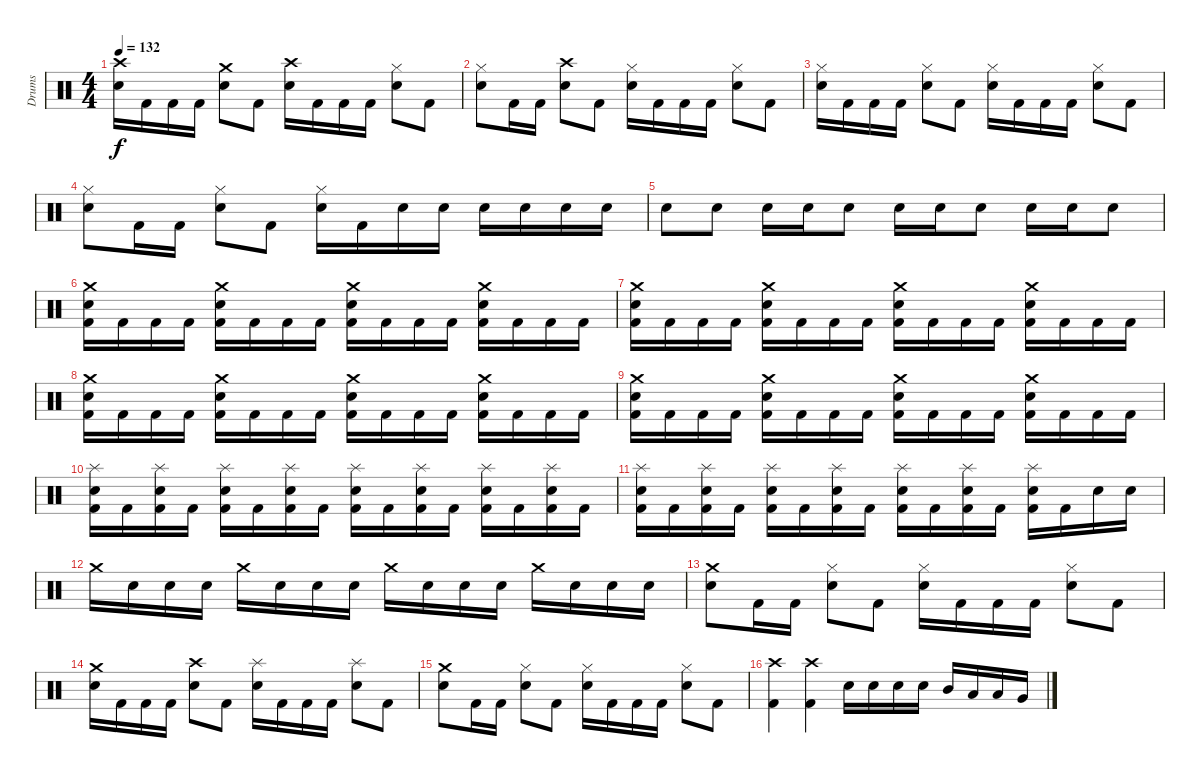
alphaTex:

\track ("Drums" "Drums") {instrument percussion}
\staff {score}
\articulation defaults
\ts (4 4)
\tempo 132
\clef neutral
\ks c
("Crash high (hit)" "Snare (hit) 2").16{dy f} "Kick (hit) 2".16 "Kick (hit) 2".16 "Kick (hit) 2".16 ("Crash medium (hit)" "Snare (hit) 2").8 "Kick (hit) 2".8 ("Crash high (hit)" "Snare (hit) 2").16 "Kick (hit) 2".16 "Kick (hit) 2".16 "Kick (hit) 2".16 ("Hi-Hat (closed)" "Snare (hit) 2").8 "Kick (hit) 2".8 |
("Hi-Hat (closed)" "Snare (hit) 2").8 "Kick (hit) 2".16 "Kick (hit) 2".16 ("Crash high (hit)" "Snare (hit) 2").8 "Kick (hit) 2".8 ("Hi-Hat (closed)" "Snare (hit) 2").16 "Kick (hit) 2".16 "Kick (hit) 2".16 "Kick (hit) 2".16 ("Hi-Hat (closed)" "Snare (hit) 2").8 "Kick (hit) 2".8 |
("Hi-Hat (closed)" "Snare (hit) 2").16 "Kick (hit) 2".16 "Kick (hit) 2".16 "Kick (hit) 2".16 ("Hi-Hat (closed)" "Snare (hit) 2").8 "Kick (hit) 2".8 ("Hi-Hat (closed)" "Snare (hit) 2").16 "Kick (hit) 2".16 "Kick (hit) 2".16 "Kick (hit) 2".16 ("Hi-Hat (closed)" "Snare (hit) 2").8 "Kick (hit) 2".8 |
("Hi-Hat (closed)" "Snare (hit) 2").8 "Kick (hit) 2".16 "Kick (hit) 2".16 ("Hi-Hat (closed)" "Snare (hit) 2").8 "Kick (hit) 2".8 ("Hi-Hat (closed)" "Snare (hit) 2").16 "Kick (hit) 2".16 "Snare (hit) 2".16 "Snare (hit) 2".16 "Snare (hit) 2".16 "Snare (hit) 2".16 "Snare (hit) 2".16 "Snare (hit) 2".16 |
"Snare (hit) 2".8 "Snare (hit) 2".8 "Snare (hit) 2".16 "Snare (hit) 2".16 "Snare (hit) 2".8 "Snare (hit) 2".16 "Snare (hit) 2".16 "Snare (hit) 2".8 "Snare (hit) 2".16 "Snare (hit) 2".16 "Snare (hit) 2".8 |
("Crash medium (hit)" "Snare (hit) 2" "Kick (hit) 2").16 "Kick (hit) 2".16 "Kick (hit) 2".16 "Kick (hit) 2".16 ("Crash medium (hit)" "Snare (hit) 2" "Kick (hit) 2").16 "Kick (hit) 2".16 "Kick (hit) 2".16 "Kick (hit) 2".16 ("Crash medium (hit)" "Snare (hit) 2" "Kick (hit) 2").16 "Kick (hit) 2".16 "Kick (hit) 2".16 "Kick (hit) 2".16 ("Crash medium (hit)" "Snare (hit) 2" "Kick (hit) 2").16 "Kick (hit) 2".16 "Kick (hit) 2".16 "Kick (hit) 2".16 |
("Crash medium (hit)" "Snare (hit) 2" "Kick (hit) 2").16 "Kick (hit) 2".16 "Kick (hit) 2".16 "Kick (hit) 2".16 ("Crash medium (hit)" "Snare (hit) 2" "Kick (hit) 2").16 "Kick (hit) 2".16 "Kick (hit) 2".16 "Kick (hit) 2".16 ("Crash medium (hit)" "Snare (hit) 2" "Kick (hit) 2").16 "Kick (hit) 2".16 "Kick (hit) 2".16 "Kick (hit) 2".16 ("Crash medium (hit)" "Snare (hit) 2" "Kick (hit) 2").16 "Kick (hit) 2".16 "Kick (hit) 2".16 "Kick (hit) 2".16 |
("Crash medium (hit)" "Snare (hit) 2" "Kick (hit) 2").16 "Kick (hit) 2".16 "Kick (hit) 2".16 "Kick (hit) 2".16 ("Crash medium (hit)" "Snare (hit) 2" "Kick (hit) 2").16 "Kick (hit) 2".16 "Kick (hit) 2".16 "Kick (hit) 2".16 ("Crash medium (hit)" "Snare (hit) 2" "Kick (hit) 2").16 "Kick (hit) 2".16 "Kick (hit) 2".16 "Kick (hit) 2".16 ("Crash medium (hit)" "Snare (hit) 2" "Kick (hit) 2").16 "Kick (hit) 2".16 "Kick (hit) 2".16 "Kick (hit) 2".16 |
("Crash medium (hit)" "Snare (hit) 2" "Kick (hit) 2").16 "Kick (hit) 2".16 "Kick (hit) 2".16 "Kick (hit) 2".16 ("Crash medium (hit)" "Snare (hit) 2" "Kick (hit) 2").16 "Kick (hit) 2".16 "Kick (hit) 2".16 "Kick (hit) 2".16 ("Crash medium (hit)" "Snare (hit) 2" "Kick (hit) 2").16 "Kick (hit) 2".16 "Kick (hit) 2".16 "Kick (hit) 2".16 ("Crash medium (hit)" "Snare (hit) 2" "Kick (hit) 2").16 "Kick (hit) 2".16 "Kick (hit) 2".16 "Kick (hit) 2".16 |
("Splash (hit)" "Snare (hit) 2" "Kick (hit) 2").16 "Kick (hit) 2".16 ("Splash (hit)" "Snare (hit) 2" "Kick (hit) 2").16 "Kick (hit) 2".16 ("Splash (hit)" "Snare (hit) 2" "Kick (hit) 2").16 "Kick (hit) 2".16 ("Splash (hit)" "Snare (hit) 2" "Kick (hit) 2").16 "Kick (hit) 2".16 ("Splash (hit)" "Snare (hit) 2" "Kick (hit) 2").16 "Kick (hit) 2".16 ("Splash (hit)" "Snare (hit) 2" "Kick (hit) 2").16 "Kick (hit) 2".16 ("Splash (hit)" "Snare (hit) 2" "Kick (hit) 2").16 "Kick (hit) 2".16 ("Splash (hit)" "Snare (hit) 2" "Kick (hit) 2").16 "Kick (hit) 2".16 |
("Splash (hit)" "Snare (hit) 2" "Kick (hit) 2").16 "Kick (hit) 2".16 ("Splash (hit)" "Snare (hit) 2" "Kick (hit) 2").16 "Kick (hit) 2".16 ("Splash (hit)" "Snare (hit) 2" "Kick (hit) 2").16 "Kick (hit) 2".16 ("Splash (hit)" "Snare (hit) 2" "Kick (hit) 2").16 "Kick (hit) 2".16 ("Splash (hit)" "Snare (hit) 2" "Kick (hit) 2").16 "Kick (hit) 2".16 ("Splash (hit)" "Snare (hit) 2" "Kick (hit) 2").16 "Kick (hit) 2".16 ("Splash (hit)" "Snare (hit) 2" "Kick (hit) 2").16 "Kick (hit) 2".16 "Snare (hit) 2".16 "Snare (hit) 2".16 |
"Crash medium (hit)".16 "Snare (hit) 2".16 "Snare (hit) 2".16 "Snare (hit) 2".16 "Crash medium (hit)".16 "Snare (hit) 2".16 "Snare (hit) 2".16 "Snare (hit) 2".16 "Crash medium (hit)".16 "Snare (hit) 2".16 "Snare (hit) 2".16 "Snare (hit) 2".16 "Crash medium (hit)".16 "Snare (hit) 2".16 "Snare (hit) 2".16 "Snare (hit) 2".16 |
("Crash medium (hit)" "Snare (hit) 2").8 "Kick (hit) 2".16 "Kick (hit) 2".16 ("Hi-Hat (closed)" "Snare (hit) 2").8 "Kick (hit) 2".8 ("Hi-Hat (closed)" "Snare (hit) 2").16 "Kick (hit) 2".16 "Kick (hit) 2".16 "Kick (hit) 2".16 ("Hi-Hat (closed)" "Snare (hit) 2").8 "Kick (hit) 2".8 |
("Crash medium (hit)" "Snare (hit) 2").16 "Kick (hit) 2".16 "Kick (hit) 2".16 "Kick (hit) 2".16 ("Crash high (hit)" "Snare (hit) 2").8 "Kick (hit) 2".8 ("Splash (hit)" "Snare (hit) 2").16 "Kick (hit) 2".16 "Kick (hit) 2".16 "Kick (hit) 2".16 ("Splash (hit)" "Snare (hit) 2").8 "Kick (hit) 2".8 |
("Crash medium (hit)" "Snare (hit) 2").8 "Kick (hit) 2".16 "Kick (hit) 2".16 ("Hi-Hat (closed)" "Snare (hit) 2").8 "Kick (hit) 2".8 ("Hi-Hat (closed)" "Snare (hit) 2").16 "Kick (hit) 2".16 "Kick (hit) 2".16 "Kick (hit) 2".16 ("Hi-Hat (closed)" "Snare (hit) 2").8 "Kick (hit) 2".8 |
("Crash high (hit)" "Kick (hit) 2").4 ("Crash high (hit)" "Kick (hit) 2").4 "Snare (hit) 2".16 "Snare (hit) 2".16 "Snare (hit) 2".16 "Snare (hit) 2".16 "Mid Tom (hit)".16 "Low Tom (hit)".16 "Low Tom (hit)".16 "Very Low Tom (hit)".16
